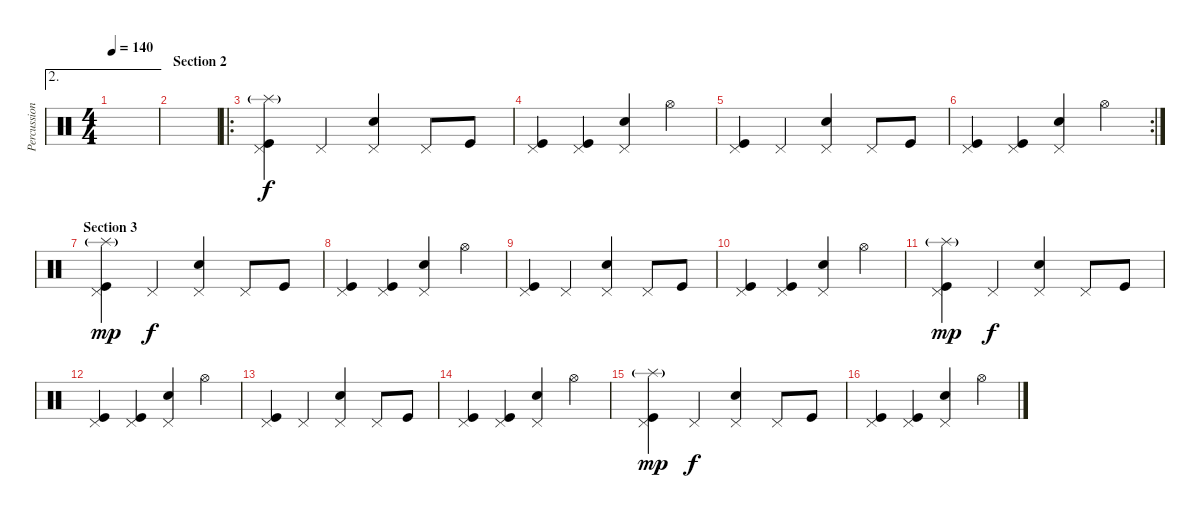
\track ("Percussion" "Percussion") {instrument percussion}
\staff {score}
\articulation defaults
\ae 2
\ts (4 4)
\tempo 140
\clef neutral
\ks c
|
\section ("" "Section 2")
|
\ro
("Splash (hit)"{g} "Kick (hit)" "Pedal Hi-Hat (hit)").4 "Pedal Hi-Hat (hit)".4{dy f} ("Electric Snare (hit)" "Pedal Hi-Hat (hit)").4 "Pedal Hi-Hat (hit)".8 "Kick (hit)".8 |
("Kick (hit)" "Pedal Hi-Hat (hit)").4 ("Kick (hit)" "Pedal Hi-Hat (hit)").4 ("Electric Snare (hit)" "Pedal Hi-Hat (hit)").4 "Hi-Hat (open)".4 |
("Kick (hit)" "Pedal Hi-Hat (hit)").4 "Pedal Hi-Hat (hit)".4 ("Electric Snare (hit)" "Pedal Hi-Hat (hit)").4 "Pedal Hi-Hat (hit)".8 "Kick (hit)".8 |
\rc 2
("Kick (hit)" "Pedal Hi-Hat (hit)").4 ("Kick (hit)" "Pedal Hi-Hat (hit)").4 ("Electric Snare (hit)" "Pedal Hi-Hat (hit)").4 "Hi-Hat (open)".4 |
\section ("" "Section 3")
("Splash (hit)"{g} "Kick (hit)" "Pedal Hi-Hat (hit)").4{dy mp} "Pedal Hi-Hat (hit)".4{dy f} ("Electric Snare (hit)" "Pedal Hi-Hat (hit)").4 "Pedal Hi-Hat (hit)".8 "Kick (hit)".8 |
("Kick (hit)" "Pedal Hi-Hat (hit)").4 ("Kick (hit)" "Pedal Hi-Hat (hit)").4 ("Electric Snare (hit)" "Pedal Hi-Hat (hit)").4 "Hi-Hat (open)".4 |
("Kick (hit)" "Pedal Hi-Hat (hit)").4 "Pedal Hi-Hat (hit)".4 ("Electric Snare (hit)" "Pedal Hi-Hat (hit)").4 "Pedal Hi-Hat (hit)".8 "Kick (hit)".8 |
("Kick (hit)" "Pedal Hi-Hat (hit)").4 ("Kick (hit)" "Pedal Hi-Hat (hit)").4 ("Electric Snare (hit)" "Pedal Hi-Hat (hit)").4 "Hi-Hat (open)".4 |
("Splash (hit)"{g} "Kick (hit)" "Pedal Hi-Hat (hit)").4{dy mp} "Pedal Hi-Hat (hit)".4{dy f} ("Electric Snare (hit)" "Pedal Hi-Hat (hit)").4 "Pedal Hi-Hat (hit)".8 "Kick (hit)".8 |
("Kick (hit)" "Pedal Hi-Hat (hit)").4 ("Kick (hit)" "Pedal Hi-Hat (hit)").4 ("Electric Snare (hit)" "Pedal Hi-Hat (hit)").4 "Hi-Hat (open)".4 |
("Kick (hit)" "Pedal Hi-Hat (hit)").4 "Pedal Hi-Hat (hit)".4 ("Electric Snare (hit)" "Pedal Hi-Hat (hit)").4 "Pedal Hi-Hat (hit)".8 "Kick (hit)".8 |
("Kick (hit)" "Pedal Hi-Hat (hit)").4 ("Kick (hit)" "Pedal Hi-Hat (hit)").4 ("Electric Snare (hit)" "Pedal Hi-Hat (hit)").4 "Hi-Hat (open)".4 |
("Splash (hit)"{g} "Kick (hit)" "Pedal Hi-Hat (hit)").4{dy mp} "Pedal Hi-Hat (hit)".4{dy f} ("Electric Snare (hit)" "Pedal Hi-Hat (hit)").4 "Pedal Hi-Hat (hit)".8 "Kick (hit)".8 |
("Kick (hit)" "Pedal Hi-Hat (hit)").4 ("Kick (hit)" "Pedal Hi-Hat (hit)").4 ("Electric Snare (hit)" "Pedal Hi-Hat (hit)").4 "Hi-Hat (open)".4
